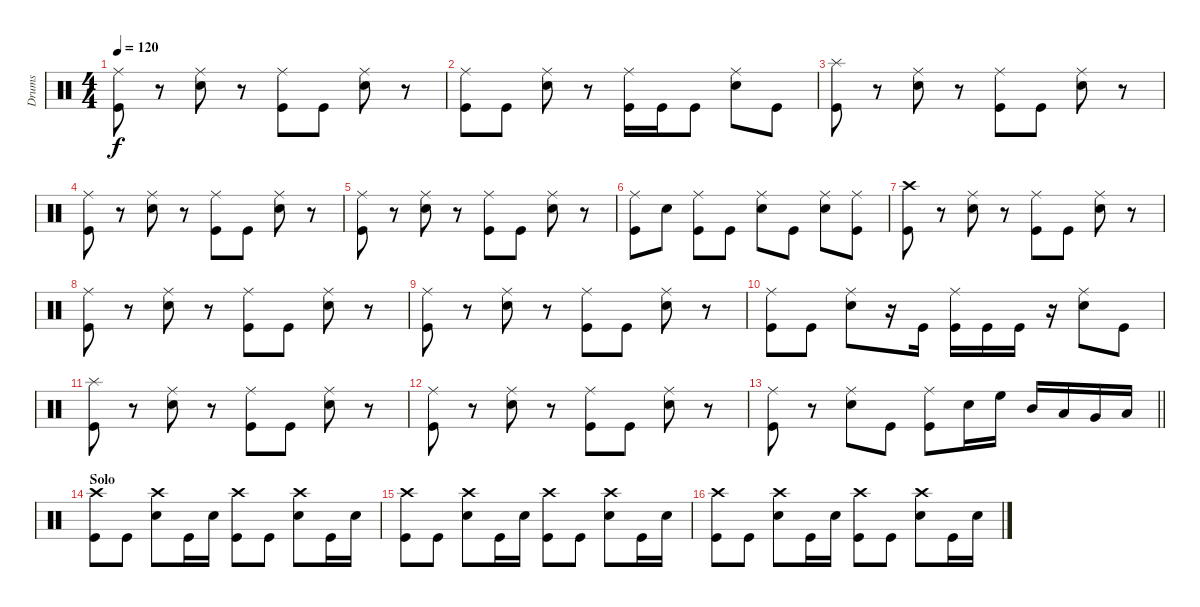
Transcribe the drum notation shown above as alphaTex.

\track ("Drums" "Drums") {instrument percussion}
\staff {score}
\articulation defaults
\ts (4 4)
\tempo 120
\clef neutral
\ks c
("Kick (hit)" "Ride (middle)").8{dy f} r.8 ("Snare (hit) 2" "Ride (middle)").8 r.8 ("Kick (hit)" "Ride (middle)").8 "Kick (hit)".8 ("Snare (hit) 2" "Ride (middle)").8 r.8 |
("Kick (hit)" "Ride (middle)").8 "Kick (hit)".8 ("Snare (hit) 2" "Ride (middle)").8 r.8 ("Kick (hit)" "Ride (middle)").16 "Kick (hit)".16 "Kick (hit)".8 ("Snare (hit) 2" "Ride (middle)").8 "Kick (hit)".8 |
("Kick (hit)" "Splash (hit)").8 r.8 ("Snare (hit) 2" "Ride (middle)").8 r.8 ("Kick (hit)" "Ride (middle)").8 "Kick (hit)".8 ("Snare (hit) 2" "Ride (middle)").8 r.8 |
("Kick (hit)" "Ride (middle)").8 r.8 ("Snare (hit) 2" "Ride (middle)").8 r.8 ("Kick (hit)" "Ride (middle)").8 "Kick (hit)".8 ("Snare (hit) 2" "Ride (middle)").8 r.8 |
("Kick (hit)" "Ride (middle)").8 r.8 ("Snare (hit) 2" "Ride (middle)").8 r.8 ("Kick (hit)" "Ride (middle)").8 "Kick (hit)".8 ("Snare (hit) 2" "Ride (middle)").8 r.8 |
("Kick (hit)" "Ride (middle)").8 "Snare (hit) 2".8 ("Kick (hit)" "Ride (middle)").8 "Kick (hit)".8 ("Snare (hit) 2" "Ride (middle)").8 "Kick (hit)".8 ("Snare (hit) 2" "Ride (middle)").8 ("Kick (hit)" "Ride (middle)").8 |
("Kick (hit)" "Crash high (hit)").8 r.8 ("Snare (hit) 2" "Ride (middle)").8 r.8 ("Kick (hit)" "Ride (middle)").8 "Kick (hit)".8 ("Snare (hit) 2" "Ride (middle)").8 r.8 |
("Kick (hit)" "Ride (middle)").8 r.8 ("Snare (hit) 2" "Ride (middle)").8 r.8 ("Kick (hit)" "Ride (middle)").8 "Kick (hit)".8 ("Snare (hit) 2" "Ride (middle)").8 r.8 |
("Kick (hit)" "Ride (middle)").8 r.8 ("Snare (hit) 2" "Ride (middle)").8 r.8 ("Kick (hit)" "Ride (middle)").8 "Kick (hit)".8 ("Snare (hit) 2" "Ride (middle)").8 r.8 |
("Kick (hit)" "Ride (middle)").8 "Kick (hit)".8 ("Snare (hit) 2" "Ride (middle)").8 r.16 "Kick (hit)".16 ("Kick (hit)" "Ride (middle)").16 "Kick (hit)".16 "Kick (hit)".16 r.16 ("Snare (hit) 2" "Ride (middle)").8 "Kick (hit)".8 |
("Kick (hit)" "Splash (hit)").8 r.8 ("Snare (hit) 2" "Ride (middle)").8 r.8 ("Kick (hit)" "Ride (middle)").8 "Kick (hit)".8 ("Snare (hit) 2" "Ride (middle)").8 r.8 |
("Kick (hit)" "Ride (middle)").8 r.8 ("Snare (hit) 2" "Ride (middle)").8 r.8 ("Kick (hit)" "Ride (middle)").8 "Kick (hit)".8 ("Snare (hit) 2" "Ride (middle)").8 r.8 |
\barLineRight lightlight
("Kick (hit)" "Ride (middle)").8 r.8 ("Snare (hit) 2" "Ride (middle)").8 "Kick (hit)".8 ("Kick (hit)" "Ride (middle)").8 "Snare (hit) 2".16 "High Floor Tom (hit)".16 "Mid Tom (hit)".16 "Low Tom (hit)".16 "Very Low Tom (hit)".16 "Low Floor Tom (hit)".16 |
\section ("" "Solo")
("Kick (hit)" "Crash high (hit)").8 "Kick (hit)".8 ("Snare (hit) 2" "Crash high (hit)").8 "Kick (hit)".16 "Snare (hit) 2".16 ("Kick (hit)" "Crash high (hit)").8 "Kick (hit)".8 ("Snare (hit) 2" "Crash high (hit)").8 "Kick (hit)".16 "Snare (hit) 2".16 |
("Kick (hit)" "Crash high (hit)").8 "Kick (hit)".8 ("Snare (hit) 2" "Crash high (hit)").8 "Kick (hit)".16 "Snare (hit) 2".16 ("Kick (hit)" "Crash high (hit)").8 "Kick (hit)".8 ("Snare (hit) 2" "Crash high (hit)").8 "Kick (hit)".16 "Snare (hit) 2".16 |
("Kick (hit)" "Crash high (hit)").8 "Kick (hit)".8 ("Snare (hit) 2" "Crash high (hit)").8 "Kick (hit)".16 "Snare (hit) 2".16 ("Kick (hit)" "Crash high (hit)").8 "Kick (hit)".8 ("Snare (hit) 2" "Crash high (hit)").8 "Kick (hit)".16 "Snare (hit) 2".16
